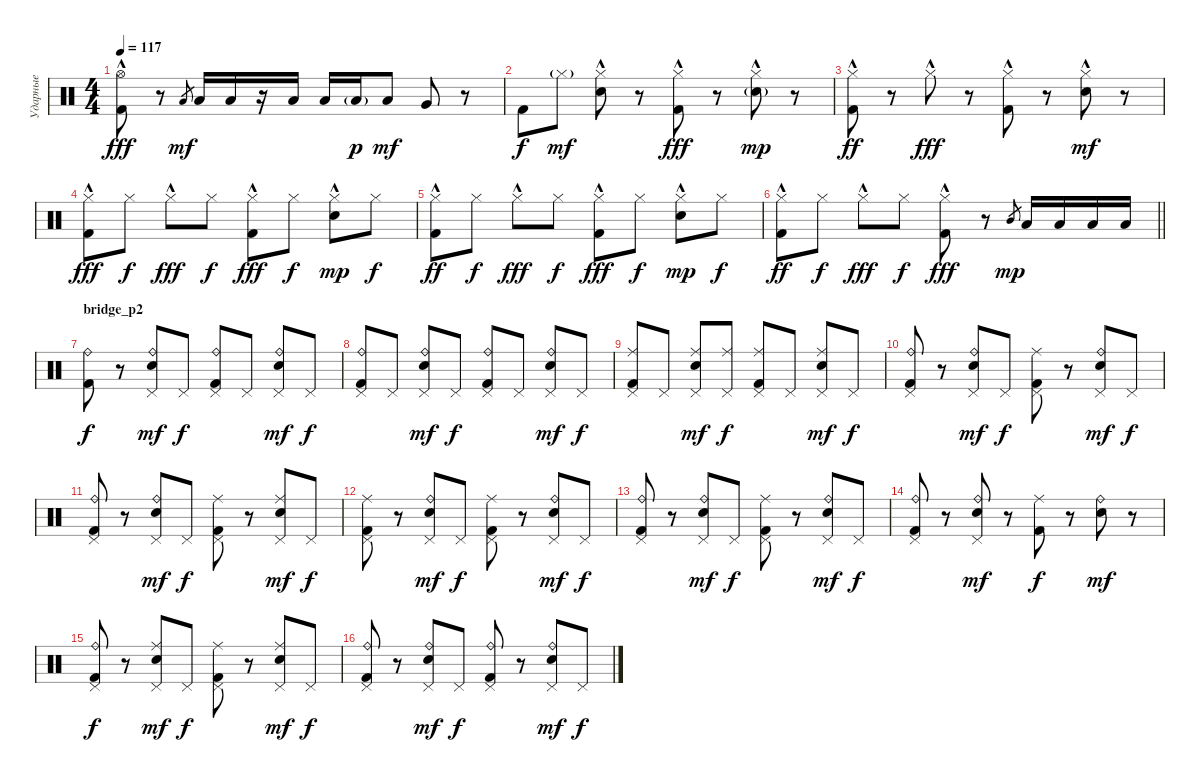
\track ("Ударные" "Ударные") {instrument percussion}
\staff {score}
\articulation defaults
\ts (4 4)
\tempo 117
\clef neutral
\ks c
("Hi-Hat (open)"{hac} "Kick (hit) 2").8{dy fff} r.8 "Low Tom (hit)".8{gr dy mf} "Low Tom (hit)".16 "Low Tom (hit)".16 r.16 "Low Tom (hit)".16 "Low Tom (hit)".16 "Low Tom (hit)"{g}.16{dy p} "Low Tom (hit)".8{dy mf} "Very Low Tom (hit)".8 r.8 |
"Kick (hit) 2".8{dy f} "Hi-Hat (closed)"{g}.8{dy mf} ("Hi-Hat (closed)"{hac} "Electric Snare (hit)").8 r.8 ("Hi-Hat (closed)"{hac} "Kick (hit) 2").8{dy fff} r.8 ("Hi-Hat (closed)"{hac} "Electric Snare (hit)"{g}).8{dy mp} r.8 |
("Hi-Hat (closed)"{hac} "Kick (hit) 2").8{dy ff} r.8 "Hi-Hat (closed)"{hac}.8{dy fff} r.8 ("Hi-Hat (closed)"{hac} "Kick (hit) 2").8 r.8 ("Hi-Hat (closed)"{hac} "Electric Snare (hit)").8{dy mf} r.8 |
("Hi-Hat (closed)"{hac} "Kick (hit) 2").8{dy fff} "Hi-Hat (closed)".8{dy f} "Hi-Hat (closed)"{hac}.8{dy fff} "Hi-Hat (closed)".8{dy f} ("Hi-Hat (closed)"{hac} "Kick (hit) 2").8{dy fff} "Hi-Hat (closed)".8{dy f} ("Hi-Hat (closed)"{hac} "Electric Snare (hit)").8{dy mp} "Hi-Hat (closed)".8{dy f} |
("Hi-Hat (closed)"{hac} "Kick (hit) 2").8{dy ff} "Hi-Hat (closed)".8{dy f} "Hi-Hat (closed)"{hac}.8{dy fff} "Hi-Hat (closed)".8{dy f} ("Hi-Hat (closed)"{hac} "Kick (hit) 2").8{dy fff} "Hi-Hat (closed)".8{dy f} ("Hi-Hat (closed)"{hac} "Electric Snare (hit)").8{dy mp} "Hi-Hat (closed)".8{dy f} |
\barLineRight lightlight
("Hi-Hat (closed)"{hac} "Kick (hit) 2").8{dy ff} "Hi-Hat (closed)".8{dy f} "Hi-Hat (closed)"{hac}.8{dy fff} "Hi-Hat (closed)".8{dy f} ("Hi-Hat (closed)"{hac} "Kick (hit) 2").8{dy fff} r.8 "Mid Tom (hit)".8{gr dy mp} "Low Tom (hit)".16 "Low Tom (hit)".16 "Low Tom (hit)".16 "Low Tom (hit)".16 |
\section ("" "bridge_p2")
("Ride (bell)" "Kick (hit) 2").8{dy f} r.8 ("Ride (bell)" "Pedal Hi-Hat (hit)" "Electric Snare (hit)").8{dy mf} "Pedal Hi-Hat (hit)".8{dy f} ("Ride (bell)" "Pedal Hi-Hat (hit)" "Kick (hit) 2").8 "Pedal Hi-Hat (hit)".8 ("Ride (bell)" "Pedal Hi-Hat (hit)" "Electric Snare (hit)").8{dy mf} "Pedal Hi-Hat (hit)".8{dy f} |
("Ride (bell)" "Pedal Hi-Hat (hit)" "Kick (hit) 2").8 "Pedal Hi-Hat (hit)".8 ("Ride (bell)" "Pedal Hi-Hat (hit)" "Electric Snare (hit)").8{dy mf} "Pedal Hi-Hat (hit)".8{dy f} ("Ride (bell)" "Pedal Hi-Hat (hit)" "Kick (hit) 2").8 "Pedal Hi-Hat (hit)".8 ("Ride (bell)" "Pedal Hi-Hat (hit)" "Electric Snare (hit)").8{dy mf} "Pedal Hi-Hat (hit)".8{dy f} |
("Ride (middle)" "Pedal Hi-Hat (hit)" "Kick (hit) 2").8 "Pedal Hi-Hat (hit)".8 ("Ride (middle)" "Pedal Hi-Hat (hit)" "Electric Snare (hit)").8{dy mf} ("Ride (middle)" "Pedal Hi-Hat (hit)").8{dy f} ("Ride (middle)" "Pedal Hi-Hat (hit)" "Kick (hit) 2").8 "Pedal Hi-Hat (hit)".8 ("Ride (middle)" "Pedal Hi-Hat (hit)" "Electric Snare (hit)").8{dy mf} "Pedal Hi-Hat (hit)".8{dy f} |
("Ride (bell)" "Pedal Hi-Hat (hit)" "Kick (hit) 2").8 r.8 ("Ride (bell)" "Pedal Hi-Hat (hit)" "Electric Snare (hit)").8{dy mf} "Pedal Hi-Hat (hit)".8{dy f} ("Ride (middle)" "Pedal Hi-Hat (hit)" "Kick (hit) 2").8 r.8 ("Ride (bell)" "Pedal Hi-Hat (hit)" "Electric Snare (hit)").8{dy mf} "Pedal Hi-Hat (hit)".8{dy f} |
("Ride (bell)" "Pedal Hi-Hat (hit)" "Kick (hit) 2").8 r.8 ("Ride (bell)" "Pedal Hi-Hat (hit)" "Electric Snare (hit)").8{dy mf} "Pedal Hi-Hat (hit)".8{dy f} ("Ride (middle)" "Pedal Hi-Hat (hit)" "Kick (hit) 2").8 r.8 ("Ride (middle)" "Pedal Hi-Hat (hit)" "Electric Snare (hit)").8{dy mf} "Pedal Hi-Hat (hit)".8{dy f} |
("Ride (middle)" "Pedal Hi-Hat (hit)" "Kick (hit) 2").8 r.8 ("Ride (bell)" "Pedal Hi-Hat (hit)" "Electric Snare (hit)").8{dy mf} "Pedal Hi-Hat (hit)".8{dy f} ("Ride (middle)" "Pedal Hi-Hat (hit)" "Kick (hit) 2").8 r.8 ("Ride (bell)" "Pedal Hi-Hat (hit)" "Electric Snare (hit)").8{dy mf} "Pedal Hi-Hat (hit)".8{dy f} |
("Ride (bell)" "Pedal Hi-Hat (hit)" "Kick (hit) 2").8 r.8 ("Ride (bell)" "Pedal Hi-Hat (hit)" "Electric Snare (hit)").8{dy mf} "Pedal Hi-Hat (hit)".8{dy f} ("Ride (middle)" "Pedal Hi-Hat (hit)" "Kick (hit) 2").8 r.8 ("Ride (bell)" "Pedal Hi-Hat (hit)" "Electric Snare (hit)").8{dy mf} "Pedal Hi-Hat (hit)".8{dy f} |
("Ride (bell)" "Pedal Hi-Hat (hit)" "Kick (hit) 2").8 r.8 ("Ride (bell)" "Pedal Hi-Hat (hit)" "Electric Snare (hit)").8{dy mf} r.8 ("Ride (middle)" "Kick (hit) 2").8{dy f} r.8 ("Ride (bell)" "Electric Snare (hit)").8{dy mf} r.8 |
("Ride (bell)" "Pedal Hi-Hat (hit)" "Kick (hit) 2").8{dy f} r.8 ("Ride (middle)" "Pedal Hi-Hat (hit)" "Electric Snare (hit)").8{dy mf} "Pedal Hi-Hat (hit)".8{dy f} ("Ride (middle)" "Pedal Hi-Hat (hit)" "Kick (hit) 2").8 r.8 ("Ride (middle)" "Pedal Hi-Hat (hit)" "Electric Snare (hit)").8{dy mf} "Pedal Hi-Hat (hit)".8{dy f} |
("Ride (bell)" "Pedal Hi-Hat (hit)" "Kick (hit) 2").8 r.8 ("Ride (bell)" "Pedal Hi-Hat (hit)" "Electric Snare (hit)").8{dy mf} "Pedal Hi-Hat (hit)".8{dy f} ("Ride (bell)" "Pedal Hi-Hat (hit)" "Kick (hit) 2").8 r.8 ("Ride (bell)" "Pedal Hi-Hat (hit)" "Electric Snare (hit)").8{dy mf} "Pedal Hi-Hat (hit)".8{dy f}
